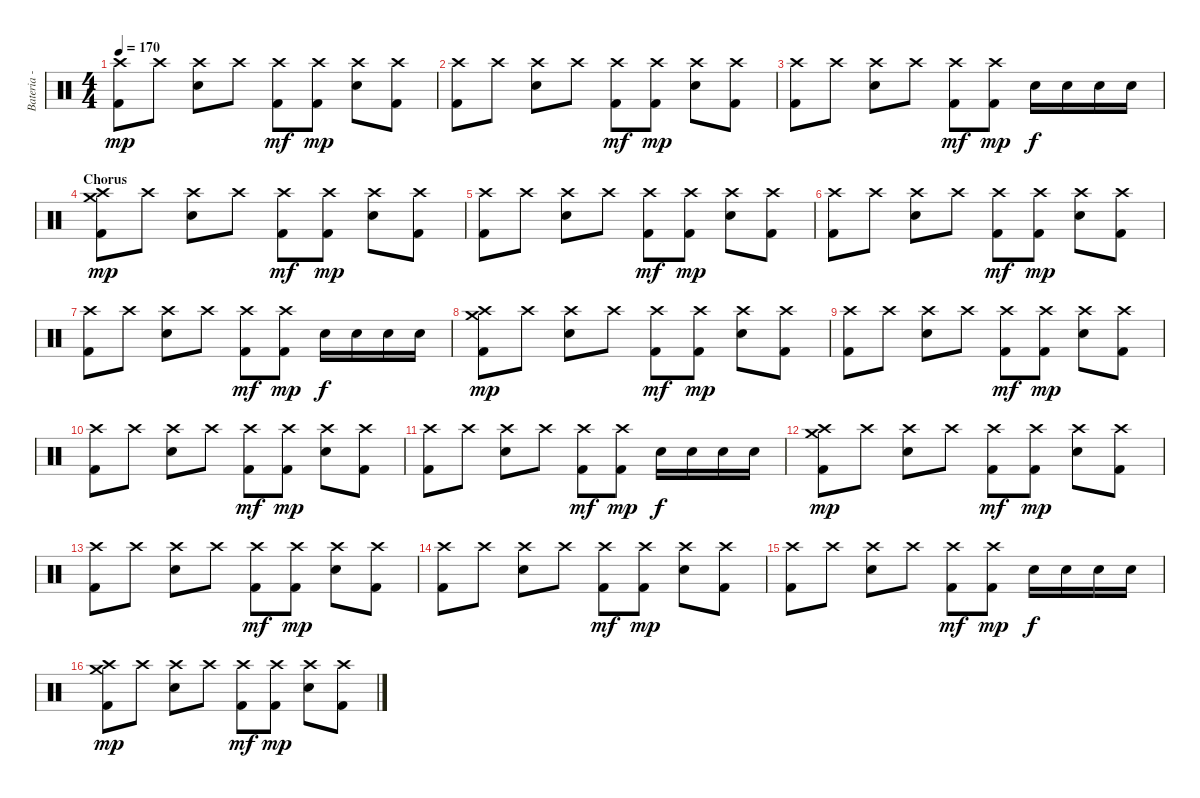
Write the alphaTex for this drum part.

\track ("Bateria - Larzon" "Bateria - ") {instrument percussion}
\staff {score}
\articulation defaults
\ts (4 4)
\tempo 170
\clef neutral
\ks c
("Kick (hit) 2" "Crash high (hit)").8{dy mp} "Crash high (hit)".8 ("Electric Snare (hit)" "Crash high (hit)").8 "Crash high (hit)".8 ("Kick (hit) 2" "Crash high (hit)").8{dy mf} ("Kick (hit) 2" "Crash high (hit)").8{dy mp} ("Electric Snare (hit)" "Crash high (hit)").8 ("Kick (hit) 2" "Crash high (hit)").8 |
("Kick (hit) 2" "Crash high (hit)").8 "Crash high (hit)".8 ("Electric Snare (hit)" "Crash high (hit)").8 "Crash high (hit)".8 ("Kick (hit) 2" "Crash high (hit)").8{dy mf} ("Kick (hit) 2" "Crash high (hit)").8{dy mp} ("Electric Snare (hit)" "Crash high (hit)").8 ("Kick (hit) 2" "Crash high (hit)").8 |
("Kick (hit) 2" "Crash high (hit)").8 "Crash high (hit)".8 ("Electric Snare (hit)" "Crash high (hit)").8 "Crash high (hit)".8 ("Kick (hit) 2" "Crash high (hit)").8{dy mf} ("Kick (hit) 2" "Crash high (hit)").8{dy mp} "Electric Snare (hit)".16{dy f} "Electric Snare (hit)".16 "Electric Snare (hit)".16 "Electric Snare (hit)".16 |
\section ("" "Chorus")
("Kick (hit) 2" "Crash medium (hit)" "Crash high (hit)").8{dy mp volume 13} "Crash high (hit)".8 ("Electric Snare (hit)" "Crash high (hit)").8 "Crash high (hit)".8 ("Kick (hit) 2" "Crash high (hit)").8{dy mf} ("Kick (hit) 2" "Crash high (hit)").8{dy mp} ("Electric Snare (hit)" "Crash high (hit)").8 ("Kick (hit) 2" "Crash high (hit)").8 |
("Kick (hit) 2" "Crash high (hit)").8 "Crash high (hit)".8 ("Electric Snare (hit)" "Crash high (hit)").8 "Crash high (hit)".8 ("Kick (hit) 2" "Crash high (hit)").8{dy mf} ("Kick (hit) 2" "Crash high (hit)").8{dy mp} ("Electric Snare (hit)" "Crash high (hit)").8 ("Kick (hit) 2" "Crash high (hit)").8 |
("Kick (hit) 2" "Crash high (hit)").8 "Crash high (hit)".8 ("Electric Snare (hit)" "Crash high (hit)").8 "Crash high (hit)".8 ("Kick (hit) 2" "Crash high (hit)").8{dy mf} ("Kick (hit) 2" "Crash high (hit)").8{dy mp} ("Electric Snare (hit)" "Crash high (hit)").8 ("Kick (hit) 2" "Crash high (hit)").8 |
("Kick (hit) 2" "Crash high (hit)").8 "Crash high (hit)".8 ("Electric Snare (hit)" "Crash high (hit)").8 "Crash high (hit)".8 ("Kick (hit) 2" "Crash high (hit)").8{dy mf} ("Kick (hit) 2" "Crash high (hit)").8{dy mp} "Electric Snare (hit)".16{dy f} "Electric Snare (hit)".16 "Electric Snare (hit)".16 "Electric Snare (hit)".16 |
("Kick (hit) 2" "Crash medium (hit)" "Crash high (hit)").8{dy mp} "Crash high (hit)".8 ("Electric Snare (hit)" "Crash high (hit)").8 "Crash high (hit)".8 ("Kick (hit) 2" "Crash high (hit)").8{dy mf} ("Kick (hit) 2" "Crash high (hit)").8{dy mp} ("Electric Snare (hit)" "Crash high (hit)").8 ("Kick (hit) 2" "Crash high (hit)").8 |
("Kick (hit) 2" "Crash high (hit)").8 "Crash high (hit)".8 ("Electric Snare (hit)" "Crash high (hit)").8 "Crash high (hit)".8 ("Kick (hit) 2" "Crash high (hit)").8{dy mf} ("Kick (hit) 2" "Crash high (hit)").8{dy mp} ("Electric Snare (hit)" "Crash high (hit)").8 ("Kick (hit) 2" "Crash high (hit)").8 |
("Kick (hit) 2" "Crash high (hit)").8 "Crash high (hit)".8 ("Electric Snare (hit)" "Crash high (hit)").8 "Crash high (hit)".8 ("Kick (hit) 2" "Crash high (hit)").8{dy mf} ("Kick (hit) 2" "Crash high (hit)").8{dy mp} ("Electric Snare (hit)" "Crash high (hit)").8 ("Kick (hit) 2" "Crash high (hit)").8 |
("Kick (hit) 2" "Crash high (hit)").8 "Crash high (hit)".8 ("Electric Snare (hit)" "Crash high (hit)").8 "Crash high (hit)".8 ("Kick (hit) 2" "Crash high (hit)").8{dy mf} ("Kick (hit) 2" "Crash high (hit)").8{dy mp} "Electric Snare (hit)".16{dy f} "Electric Snare (hit)".16 "Electric Snare (hit)".16 "Electric Snare (hit)".16 |
("Kick (hit) 2" "Crash medium (hit)" "Crash high (hit)").8{dy mp volume 13} "Crash high (hit)".8 ("Electric Snare (hit)" "Crash high (hit)").8 "Crash high (hit)".8 ("Kick (hit) 2" "Crash high (hit)").8{dy mf} ("Kick (hit) 2" "Crash high (hit)").8{dy mp} ("Electric Snare (hit)" "Crash high (hit)").8 ("Kick (hit) 2" "Crash high (hit)").8 |
("Kick (hit) 2" "Crash high (hit)").8 "Crash high (hit)".8 ("Electric Snare (hit)" "Crash high (hit)").8 "Crash high (hit)".8 ("Kick (hit) 2" "Crash high (hit)").8{dy mf} ("Kick (hit) 2" "Crash high (hit)").8{dy mp} ("Electric Snare (hit)" "Crash high (hit)").8 ("Kick (hit) 2" "Crash high (hit)").8 |
("Kick (hit) 2" "Crash high (hit)").8 "Crash high (hit)".8 ("Electric Snare (hit)" "Crash high (hit)").8 "Crash high (hit)".8 ("Kick (hit) 2" "Crash high (hit)").8{dy mf} ("Kick (hit) 2" "Crash high (hit)").8{dy mp} ("Electric Snare (hit)" "Crash high (hit)").8 ("Kick (hit) 2" "Crash high (hit)").8 |
("Kick (hit) 2" "Crash high (hit)").8 "Crash high (hit)".8 ("Electric Snare (hit)" "Crash high (hit)").8 "Crash high (hit)".8 ("Kick (hit) 2" "Crash high (hit)").8{dy mf} ("Kick (hit) 2" "Crash high (hit)").8{dy mp} "Electric Snare (hit)".16{dy f} "Electric Snare (hit)".16 "Electric Snare (hit)".16 "Electric Snare (hit)".16 |
("Kick (hit) 2" "Crash medium (hit)" "Crash high (hit)").8{dy mp} "Crash high (hit)".8 ("Electric Snare (hit)" "Crash high (hit)").8 "Crash high (hit)".8 ("Kick (hit) 2" "Crash high (hit)").8{dy mf} ("Kick (hit) 2" "Crash high (hit)").8{dy mp} ("Electric Snare (hit)" "Crash high (hit)").8 ("Kick (hit) 2" "Crash high (hit)").8
